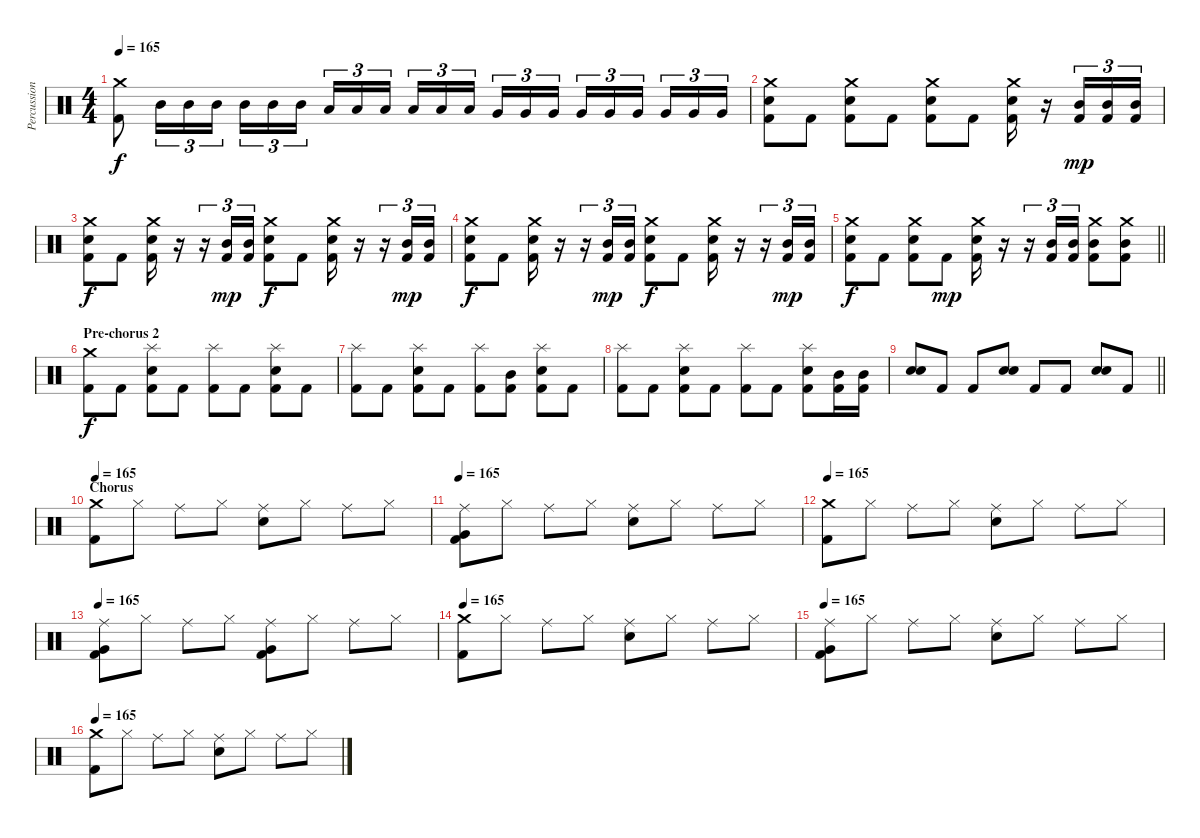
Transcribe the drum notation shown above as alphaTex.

\track ("Percussion" "Percussion") {instrument percussion}
\staff {score}
\articulation defaults
\ts (4 4)
\tempo 165
\clef neutral
\ks c
("Crash medium (hit)" "Kick (hit) 2").8{dy f} "Mid Tom (hit)".16{tu (3 2)} "Mid Tom (hit)".16{tu (3 2)} "Mid Tom (hit)".16{tu (3 2)} "Mid Tom (hit)".16{tu (3 2)} "Mid Tom (hit)".16{tu (3 2)} "Mid Tom (hit)".16{tu (3 2) beam splitsecondary} "Low Tom (hit)".16{tu (3 2)} "Low Tom (hit)".16{tu (3 2)} "Low Tom (hit)".16{tu (3 2)} "Low Tom (hit)".16{tu (3 2)} "Low Tom (hit)".16{tu (3 2)} "Low Tom (hit)".16{tu (3 2) beam splitsecondary} "Very Low Tom (hit)".16{tu (3 2)} "Very Low Tom (hit)".16{tu (3 2)} "Very Low Tom (hit)".16{tu (3 2)} "Very Low Tom (hit)".16{tu (3 2)} "Very Low Tom (hit)".16{tu (3 2)} "Very Low Tom (hit)".16{tu (3 2) beam splitsecondary} "Very Low Tom (hit)".16{tu (3 2)} "Very Low Tom (hit)".16{tu (3 2)} "Very Low Tom (hit)".16{tu (3 2)} |
("Crash medium (hit)" "Electric Snare (hit)" "Kick (hit) 2").8 "Kick (hit) 2".8 ("Crash medium (hit)" "Electric Snare (hit)" "Kick (hit) 2").8 "Kick (hit) 2".8 ("Crash medium (hit)" "Electric Snare (hit)" "Kick (hit) 2").8 "Kick (hit) 2".8 ("Crash medium (hit)" "Electric Snare (hit)" "Kick (hit) 2").16 r.16 ("Mid Tom (hit)" "Kick (hit) 2").16{tu (3 2) dy mp} ("Mid Tom (hit)" "Kick (hit) 2").16{tu (3 2)} ("Mid Tom (hit)" "Kick (hit) 2").16{tu (3 2)} |
("Crash medium (hit)" "Electric Snare (hit)" "Kick (hit) 2").8{dy f} "Kick (hit) 2".8 ("Crash medium (hit)" "Electric Snare (hit)" "Kick (hit) 2").16 r.16 r.16{tu (3 2)} ("Mid Tom (hit)" "Kick (hit) 2").16{tu (3 2) dy mp} ("Mid Tom (hit)" "Kick (hit) 2").16{tu (3 2)} ("Crash medium (hit)" "Electric Snare (hit)" "Kick (hit) 2").8{dy f} "Kick (hit) 2".8 ("Crash medium (hit)" "Electric Snare (hit)" "Kick (hit) 2").16 r.16 r.16{tu (3 2)} ("Mid Tom (hit)" "Kick (hit) 2").16{tu (3 2) dy mp} ("Mid Tom (hit)" "Kick (hit) 2").16{tu (3 2)} |
("Crash medium (hit)" "Electric Snare (hit)" "Kick (hit) 2").8{dy f} "Kick (hit) 2".8 ("Crash medium (hit)" "Electric Snare (hit)" "Kick (hit) 2").16 r.16 r.16{tu (3 2)} ("Mid Tom (hit)" "Kick (hit) 2").16{tu (3 2) dy mp} ("Mid Tom (hit)" "Kick (hit) 2").16{tu (3 2)} ("Crash medium (hit)" "Electric Snare (hit)" "Kick (hit) 2").8{dy f} "Kick (hit) 2".8 ("Crash medium (hit)" "Electric Snare (hit)" "Kick (hit) 2").16 r.16 r.16{tu (3 2)} ("Mid Tom (hit)" "Kick (hit) 2").16{tu (3 2) dy mp} ("Mid Tom (hit)" "Kick (hit) 2").16{tu (3 2)} |
\barLineRight lightlight
("Crash medium (hit)" "Electric Snare (hit)" "Kick (hit) 2").8{dy f} "Kick (hit) 2".8 ("Crash medium (hit)" "Electric Snare (hit)" "Kick (hit) 2").8 "Kick (hit) 2".8{dy mp} ("Crash medium (hit)" "Electric Snare (hit)" "Kick (hit) 2").16 r.16 r.16{tu (3 2)} ("Mid Tom (hit)" "Kick (hit) 2").16{tu (3 2)} ("Mid Tom (hit)" "Kick (hit) 2").16{tu (3 2)} ("Crash medium (hit)" "Mid Tom (hit)" "Kick (hit) 2").8 ("Crash medium (hit)" "Mid Tom (hit)" "Kick (hit) 2").8 |
\section ("" "Pre-chorus 2")
("Crash medium (hit)" "Kick (hit) 2").8{dy f} "Kick (hit) 2".8 ("Splash (hit)" "Electric Snare (hit)" "Kick (hit) 2").8 "Kick (hit) 2".8 ("Splash (hit)" "Kick (hit) 2").8 "Kick (hit) 2".8 ("Splash (hit)" "Electric Snare (hit)" "Kick (hit) 2").8 "Kick (hit) 2".8 |
("Splash (hit)" "Kick (hit) 2").8 "Kick (hit) 2".8 ("Splash (hit)" "Electric Snare (hit)" "Kick (hit) 2").8 "Kick (hit) 2".8 ("Splash (hit)" "Kick (hit) 2").8 ("Mid Tom (hit)" "Kick (hit) 2").8 ("Splash (hit)" "Electric Snare (hit)" "Kick (hit) 2").8 "Kick (hit) 2".8 |
("Splash (hit)" "Kick (hit) 2").8 "Kick (hit) 2".8 ("Splash (hit)" "Electric Snare (hit)" "Kick (hit) 2").8 "Kick (hit) 2".8 ("Splash (hit)" "Kick (hit) 2").8 "Kick (hit) 2".8 ("Splash (hit)" "Electric Snare (hit)" "Kick (hit) 2").8 ("Mid Tom (hit)" "Kick (hit) 2").16 ("Mid Tom (hit)" "Kick (hit) 2").16 |
\barLineRight lightlight
("Electric Snare (hit)" "Electric Snare (hit)").8{bd 120} "Kick (hit) 2".8 "Kick (hit) 2".8 ("Electric Snare (hit)" "Electric Snare (hit)").8{bd 120} "Kick (hit) 2".8 "Kick (hit) 2".8 ("Electric Snare (hit)" "Electric Snare (hit)").8{bd 120} "Kick (hit) 2".8 |
\section ("" "Chorus")
\tempo 165
("Crash medium (hit)" "Kick (hit) 2").8 "Hi-Hat (closed)".8 "Ride (middle)".8 "Hi-Hat (closed)".8 ("Ride (middle)" "Electric Snare (hit)").8 "Hi-Hat (closed)".8 "Ride (middle)".8 "Hi-Hat (closed)".8 |
\tempo 165
("Ride (middle)" "Very Low Tom (hit)" "Kick (hit) 2").8 "Hi-Hat (closed)".8 "Ride (middle)".8 "Hi-Hat (closed)".8 ("Ride (middle)" "Electric Snare (hit)").8 "Hi-Hat (closed)".8 "Ride (middle)".8 "Hi-Hat (closed)".8 |
\tempo 165
("Crash medium (hit)" "Kick (hit) 2").8 "Hi-Hat (closed)".8 "Ride (middle)".8 "Hi-Hat (closed)".8 ("Ride (middle)" "Electric Snare (hit)").8 "Hi-Hat (closed)".8 "Ride (middle)".8 "Hi-Hat (closed)".8 |
\tempo 165
("Ride (middle)" "Very Low Tom (hit)" "Kick (hit) 2").8 "Hi-Hat (closed)".8 "Ride (middle)".8 "Hi-Hat (closed)".8 ("Ride (middle)" "Very Low Tom (hit)" "Kick (hit) 2").8 "Hi-Hat (closed)".8 "Ride (middle)".8 "Hi-Hat (closed)".8 |
\tempo 165
("Crash medium (hit)" "Kick (hit) 2").8 "Hi-Hat (closed)".8 "Ride (middle)".8 "Hi-Hat (closed)".8 ("Ride (middle)" "Electric Snare (hit)").8 "Hi-Hat (closed)".8 "Ride (middle)".8 "Hi-Hat (closed)".8 |
\tempo 165
("Ride (middle)" "Very Low Tom (hit)" "Kick (hit) 2").8 "Hi-Hat (closed)".8 "Ride (middle)".8 "Hi-Hat (closed)".8 ("Ride (middle)" "Electric Snare (hit)").8 "Hi-Hat (closed)".8 "Ride (middle)".8 "Hi-Hat (closed)".8 |
\tempo 165
("Crash medium (hit)" "Kick (hit) 2").8 "Hi-Hat (closed)".8 "Ride (middle)".8 "Hi-Hat (closed)".8 ("Ride (middle)" "Electric Snare (hit)").8 "Hi-Hat (closed)".8 "Ride (middle)".8 "Hi-Hat (closed)".8
